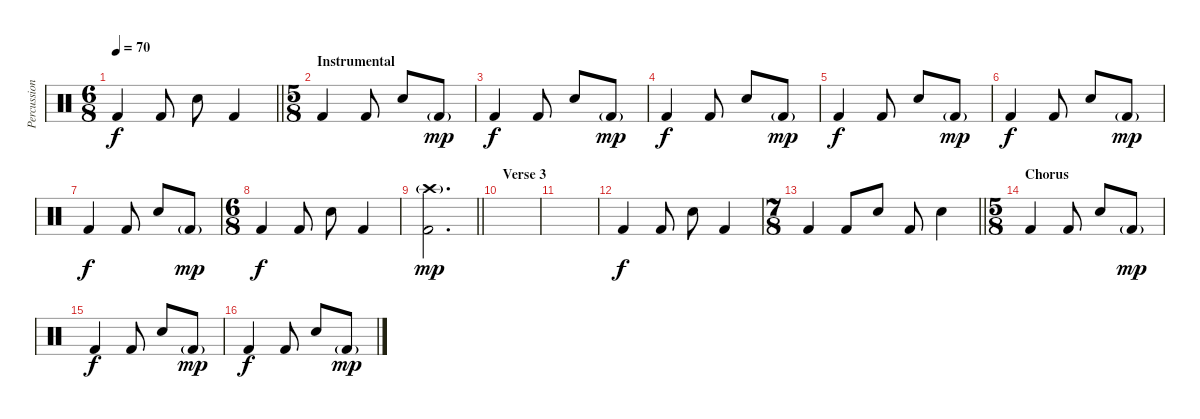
\track ("Percussion" "Percussion") {instrument percussion}
\staff {score}
\articulation defaults
\ts (6 8)
\tempo 70
\clef neutral
\barLineRight lightlight
\ks c "Kick (hit) 2".4{dy f} "Kick (hit) 2".8 "Snare (hit) 2".8 "Kick (hit) 2".4
|
\ts (5 8)
\section ("" "Instrumental")
"Kick (hit) 2".4 "Kick (hit) 2".8 "Snare (hit) 2".8 "Kick (hit) 2"{g}.8{dy mp} |
"Kick (hit) 2".4{dy f} "Kick (hit) 2".8 "Snare (hit) 2".8 "Kick (hit) 2"{g}.8{dy mp} |
"Kick (hit) 2".4{dy f} "Kick (hit) 2".8 "Snare (hit) 2".8 "Kick (hit) 2"{g}.8{dy mp} |
"Kick (hit) 2".4{dy f} "Kick (hit) 2".8 "Snare (hit) 2".8 "Kick (hit) 2"{g}.8{dy mp} |
"Kick (hit) 2".4{dy f} "Kick (hit) 2".8 "Snare (hit) 2".8 "Kick (hit) 2"{g}.8{dy mp} |
"Kick (hit) 2".4{dy f} "Kick (hit) 2".8 "Snare (hit) 2".8 "Kick (hit) 2"{g}.8{dy mp} |
\ts (6 8)
"Kick (hit) 2".4{dy f} "Kick (hit) 2".8 "Snare (hit) 2".8 "Kick (hit) 2".4 |
\barLineRight lightlight
("Crash high (hit)"{g} "Kick (hit) 2").2{d dy mp} |
\section ("" "Verse 3")
|
|
"Kick (hit) 2".4{dy f} "Kick (hit) 2".8 "Snare (hit) 2".8 "Kick (hit) 2".4 |
\ts (7 8)
\barLineRight lightlight "Kick (hit) 2".4 "Kick (hit) 2".8 "Snare (hit) 2".8 "Kick (hit) 2".8 "Snare (hit) 2".4
|
\ts (5 8)
\section ("" "Chorus")
"Kick (hit) 2".4 "Kick (hit) 2".8 "Snare (hit) 2".8 "Kick (hit) 2"{g}.8{dy mp} |
"Kick (hit) 2".4{dy f} "Kick (hit) 2".8 "Snare (hit) 2".8 "Kick (hit) 2"{g}.8{dy mp} |
"Kick (hit) 2".4{dy f} "Kick (hit) 2".8 "Snare (hit) 2".8 "Kick (hit) 2"{g}.8{dy mp}
